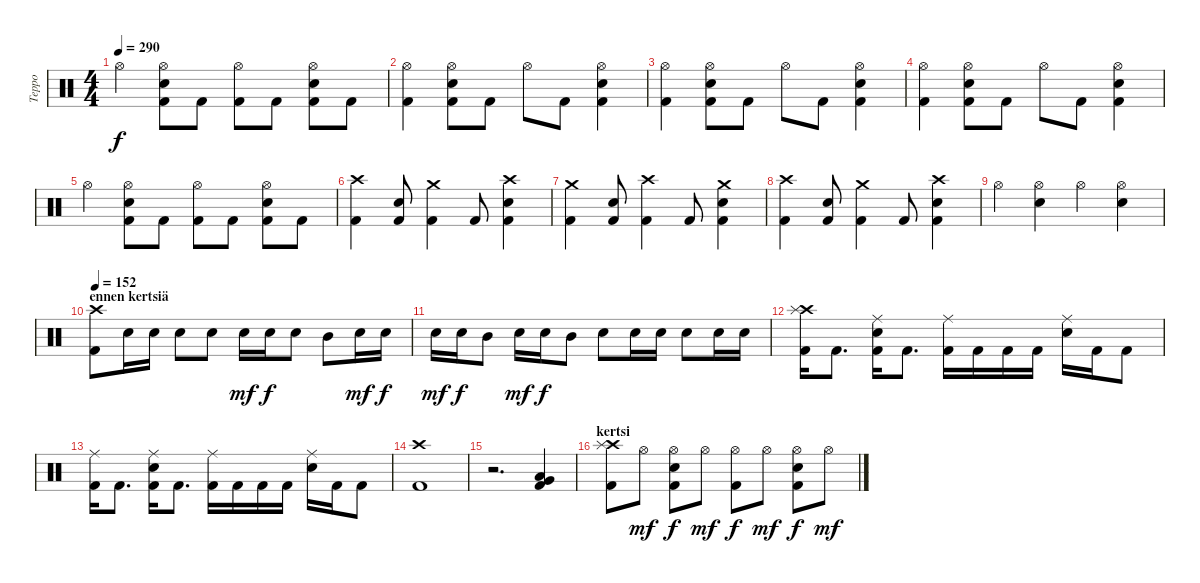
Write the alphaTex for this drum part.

\track ("Teppo" "Teppo") {instrument percussion}
\staff {score}
\articulation defaults
\ts (4 4)
\tempo 290
\clef neutral
\ks c "Hi-Hat (open)".4{dy f}
("Hi-Hat (open)" "Electric Snare (hit)" "Kick (hit) 2").8 "Kick (hit) 2".8 ("Hi-Hat (open)" "Kick (hit) 2").8 "Kick (hit) 2".8 ("Hi-Hat (open)" "Electric Snare (hit)" "Kick (hit) 2").8 "Kick (hit) 2".8 |
("Hi-Hat (open)" "Kick (hit) 2").4 ("Hi-Hat (open)" "Electric Snare (hit)" "Kick (hit) 2").8 "Kick (hit) 2".8 "Hi-Hat (open)".8 "Kick (hit) 2".8 ("Hi-Hat (open)" "Electric Snare (hit)" "Kick (hit) 2").4 |
("Hi-Hat (open)" "Kick (hit) 2").4 ("Hi-Hat (open)" "Electric Snare (hit)" "Kick (hit) 2").8 "Kick (hit) 2".8 "Hi-Hat (open)".8 "Kick (hit) 2".8 ("Hi-Hat (open)" "Electric Snare (hit)" "Kick (hit) 2").4 |
("Hi-Hat (open)" "Kick (hit) 2").4 ("Hi-Hat (open)" "Electric Snare (hit)" "Kick (hit) 2").8 "Kick (hit) 2".8 "Hi-Hat (open)".8 "Kick (hit) 2".8 ("Hi-Hat (open)" "Electric Snare (hit)" "Kick (hit) 2").4 |
"Hi-Hat (open)".4 ("Hi-Hat (open)" "Electric Snare (hit)" "Kick (hit) 2").8 "Kick (hit) 2".8 ("Hi-Hat (open)" "Kick (hit) 2").8 "Kick (hit) 2".8 ("Hi-Hat (open)" "Electric Snare (hit)" "Kick (hit) 2").8 "Kick (hit) 2".8 |
("Crash high (hit)" "Kick (hit) 2").4 ("Electric Snare (hit)" "Kick (hit) 2").8 ("Crash medium (hit)" "Kick (hit) 2").4 "Kick (hit) 2".8 ("Crash high (hit)" "Electric Snare (hit)" "Kick (hit) 2").4 |
("Crash medium (hit)" "Kick (hit) 2").4 ("Electric Snare (hit)" "Kick (hit) 2").8 ("Crash high (hit)" "Kick (hit) 2").4 "Kick (hit) 2".8 ("Crash medium (hit)" "Electric Snare (hit)" "Kick (hit) 2").4 |
("Crash high (hit)" "Kick (hit) 2").4 ("Electric Snare (hit)" "Kick (hit) 2").8 ("Crash medium (hit)" "Kick (hit) 2").4 "Kick (hit) 2".8 ("Crash high (hit)" "Electric Snare (hit)" "Kick (hit) 2").4 |
"Hi-Hat (open)".4 ("Hi-Hat (open)" "Electric Snare (hit)").4 "Hi-Hat (open)".4 ("Hi-Hat (open)" "Electric Snare (hit)").4 |
\section ("" "ennen kertsiä")
\tempo 152
("Crash high (hit)" "Kick (hit) 2").8 "Electric Snare (hit)".16 "Electric Snare (hit)".16 "Electric Snare (hit)".8 "Electric Snare (hit)".8 "Electric Snare (hit)".16{dy mf} "Electric Snare (hit)".16{dy f} "Electric Snare (hit)".8 "Mid Tom (hit)".8 "Electric Snare (hit)".16{dy mf} "Electric Snare (hit)".16{dy f} |
"Electric Snare (hit)".16{dy mf} "Electric Snare (hit)".16{dy f} "Mid Tom (hit)".8 "Electric Snare (hit)".16{dy mf} "Electric Snare (hit)".16{dy f} "Mid Tom (hit)".8 "Electric Snare (hit)".8 "Electric Snare (hit)".16 "Electric Snare (hit)".16 "Electric Snare (hit)".8 "Electric Snare (hit)".16 "Electric Snare (hit)".16 |
("Crash high (hit)" "Splash (hit)" "Kick (hit) 2").16 "Kick (hit) 2".8{d} ("Ride (middle)" "Electric Snare (hit)" "Kick (hit) 2").16 "Kick (hit) 2".8{d} ("Ride (middle)" "Kick (hit) 2").16 "Kick (hit) 2".16 "Kick (hit) 2".16 "Kick (hit) 2".16 ("Ride (middle)" "Electric Snare (hit)").16 "Kick (hit) 2".16 "Kick (hit) 2".8 |
("Ride (middle)" "Kick (hit) 2").16 "Kick (hit) 2".8{d} ("Ride (middle)" "Electric Snare (hit)" "Kick (hit) 2").16 "Kick (hit) 2".8{d} ("Ride (middle)" "Kick (hit) 2").16 "Kick (hit) 2".16 "Kick (hit) 2".16 "Kick (hit) 2".16 ("Ride (middle)" "Electric Snare (hit)").16 "Kick (hit) 2".16 "Kick (hit) 2".8 |
("Crash high (hit)" "Kick (hit) 2").1 |
r.2{d} ("Very Low Tom (hit)" "Low Floor Tom (hit)" "Kick (hit) 2").4 |
\section ("" "kertsi")
("Crash high (hit)" "Splash (hit)" "Kick (hit) 2").8 "Hi-Hat (open)".8{dy mf} ("Hi-Hat (open)" "Electric Snare (hit)" "Kick (hit) 2").8{dy f} "Hi-Hat (open)".8{dy mf} ("Hi-Hat (open)" "Kick (hit) 2").8{dy f} "Hi-Hat (open)".8{dy mf} ("Hi-Hat (open)" "Electric Snare (hit)" "Kick (hit) 2").8{dy f} "Hi-Hat (open)".8{dy mf}
